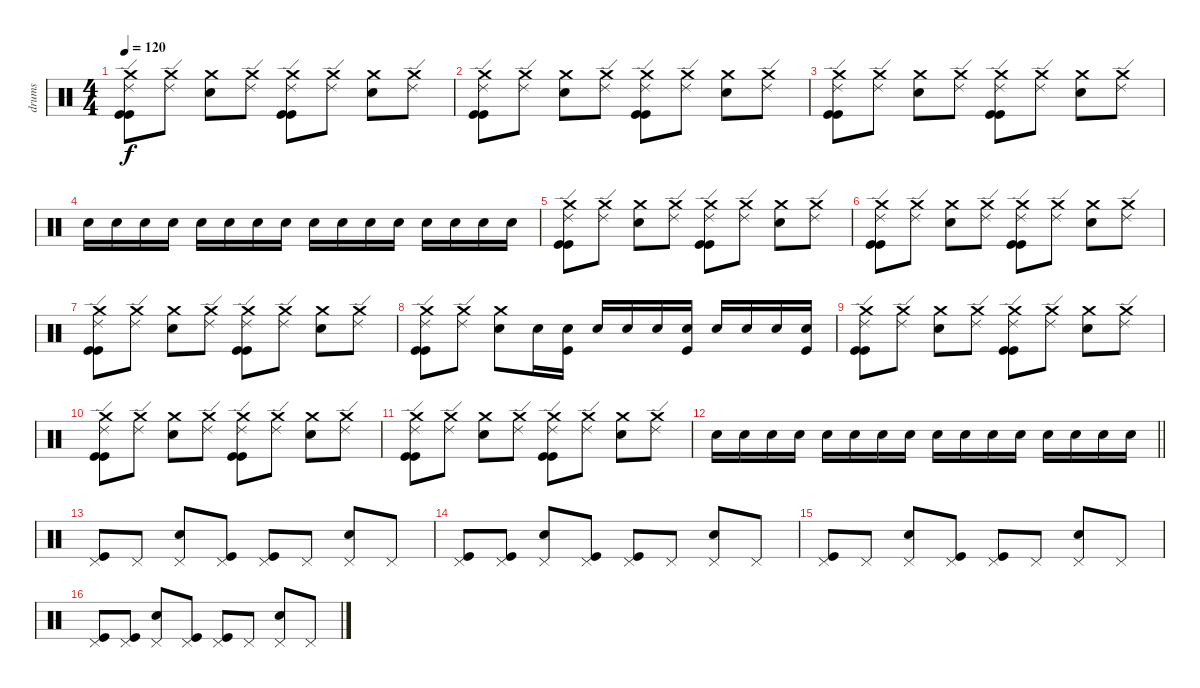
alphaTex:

\track ("drums" "drums") {instrument percussion}
\staff {score}
\articulation defaults
\ts (4 4)
\tempo 120
\clef neutral
\ks c
("Crash medium (hit)" "Ride (edge) 2" "Kick (hit)" "Kick (hit)").8{dy f} ("Crash medium (hit)" "Ride (edge) 2").8 ("Crash medium (hit)" "Electric Snare (hit)").8 ("Crash medium (hit)" "Ride (edge) 2").8 ("Crash medium (hit)" "Ride (edge) 2" "Kick (hit)" "Kick (hit)").8 ("Crash medium (hit)" "Ride (edge) 2").8 ("Crash medium (hit)" "Electric Snare (hit)").8 ("Crash medium (hit)" "Ride (edge) 2").8 |
("Crash medium (hit)" "Ride (edge) 2" "Kick (hit)" "Kick (hit)").8 ("Crash medium (hit)" "Ride (edge) 2").8 ("Crash medium (hit)" "Electric Snare (hit)").8 ("Crash medium (hit)" "Ride (edge) 2").8 ("Crash medium (hit)" "Ride (edge) 2" "Kick (hit)" "Kick (hit)").8 ("Crash medium (hit)" "Ride (edge) 2").8 ("Crash medium (hit)" "Electric Snare (hit)").8 ("Crash medium (hit)" "Ride (edge) 2").8 |
("Crash medium (hit)" "Ride (edge) 2" "Kick (hit)" "Kick (hit)").8 ("Crash medium (hit)" "Ride (edge) 2").8 ("Crash medium (hit)" "Electric Snare (hit)").8 ("Crash medium (hit)" "Ride (edge) 2").8 ("Crash medium (hit)" "Ride (edge) 2" "Kick (hit)" "Kick (hit)").8 ("Crash medium (hit)" "Ride (edge) 2").8 ("Crash medium (hit)" "Electric Snare (hit)").8 ("Crash medium (hit)" "Ride (edge) 2").8 |
"Electric Snare (hit)".16 "Electric Snare (hit)".16 "Electric Snare (hit)".16 "Electric Snare (hit)".16 "Electric Snare (hit)".16 "Electric Snare (hit)".16 "Electric Snare (hit)".16 "Electric Snare (hit)".16 "Electric Snare (hit)".16 "Electric Snare (hit)".16 "Electric Snare (hit)".16 "Electric Snare (hit)".16 "Electric Snare (hit)".16 "Electric Snare (hit)".16 "Electric Snare (hit)".16 "Electric Snare (hit)".16 |
("Crash medium (hit)" "Ride (edge) 2" "Kick (hit)" "Kick (hit)").8 ("Crash medium (hit)" "Ride (edge) 2").8 ("Crash medium (hit)" "Electric Snare (hit)").8 ("Crash medium (hit)" "Ride (edge) 2").8 ("Crash medium (hit)" "Ride (edge) 2" "Kick (hit)" "Kick (hit)").8 ("Crash medium (hit)" "Ride (edge) 2").8 ("Crash medium (hit)" "Electric Snare (hit)").8 ("Crash medium (hit)" "Ride (edge) 2").8 |
("Crash medium (hit)" "Ride (edge) 2" "Kick (hit)" "Kick (hit)").8 ("Crash medium (hit)" "Ride (edge) 2").8 ("Crash medium (hit)" "Electric Snare (hit)").8 ("Crash medium (hit)" "Ride (edge) 2").8 ("Crash medium (hit)" "Ride (edge) 2" "Kick (hit)" "Kick (hit)").8 ("Crash medium (hit)" "Ride (edge) 2").8 ("Crash medium (hit)" "Electric Snare (hit)").8 ("Crash medium (hit)" "Ride (edge) 2").8 |
("Crash medium (hit)" "Ride (edge) 2" "Kick (hit)" "Kick (hit)").8 ("Crash medium (hit)" "Ride (edge) 2").8 ("Crash medium (hit)" "Electric Snare (hit)").8 ("Crash medium (hit)" "Ride (edge) 2").8 ("Crash medium (hit)" "Ride (edge) 2" "Kick (hit)" "Kick (hit)").8 ("Crash medium (hit)" "Ride (edge) 2").8 ("Crash medium (hit)" "Electric Snare (hit)").8 ("Crash medium (hit)" "Ride (edge) 2").8 |
("Crash medium (hit)" "Ride (edge) 2" "Kick (hit)" "Kick (hit)").8 ("Crash medium (hit)" "Ride (edge) 2").8 ("Crash medium (hit)" "Electric Snare (hit)").8 "Electric Snare (hit)".16 ("Electric Snare (hit)" "Kick (hit)").16 "Electric Snare (hit)".16 "Electric Snare (hit)".16 "Electric Snare (hit)".16 ("Electric Snare (hit)" "Kick (hit)").16 "Electric Snare (hit)".16 "Electric Snare (hit)".16 "Electric Snare (hit)".16 ("Electric Snare (hit)" "Kick (hit)").16 |
("Crash medium (hit)" "Ride (edge) 2" "Kick (hit)" "Kick (hit)").8 ("Crash medium (hit)" "Ride (edge) 2").8 ("Crash medium (hit)" "Electric Snare (hit)").8 ("Crash medium (hit)" "Ride (edge) 2").8 ("Crash medium (hit)" "Ride (edge) 2" "Kick (hit)" "Kick (hit)").8 ("Crash medium (hit)" "Ride (edge) 2").8 ("Crash medium (hit)" "Electric Snare (hit)").8 ("Crash medium (hit)" "Ride (edge) 2").8 |
("Crash medium (hit)" "Ride (edge) 2" "Kick (hit)" "Kick (hit)").8 ("Crash medium (hit)" "Ride (edge) 2").8 ("Crash medium (hit)" "Electric Snare (hit)").8 ("Crash medium (hit)" "Ride (edge) 2").8 ("Crash medium (hit)" "Ride (edge) 2" "Kick (hit)" "Kick (hit)").8 ("Crash medium (hit)" "Ride (edge) 2").8 ("Crash medium (hit)" "Electric Snare (hit)").8 ("Crash medium (hit)" "Ride (edge) 2").8 |
("Crash medium (hit)" "Ride (edge) 2" "Kick (hit)" "Kick (hit)").8 ("Crash medium (hit)" "Ride (edge) 2").8 ("Crash medium (hit)" "Electric Snare (hit)").8 ("Crash medium (hit)" "Ride (edge) 2").8 ("Crash medium (hit)" "Ride (edge) 2" "Kick (hit)" "Kick (hit)").8 ("Crash medium (hit)" "Ride (edge) 2").8 ("Crash medium (hit)" "Electric Snare (hit)").8 ("Crash medium (hit)" "Ride (edge) 2").8 |
\barLineRight lightlight "Electric Snare (hit)".16 "Electric Snare (hit)".16 "Electric Snare (hit)".16 "Electric Snare (hit)".16 "Electric Snare (hit)".16 "Electric Snare (hit)".16 "Electric Snare (hit)".16 "Electric Snare (hit)".16 "Electric Snare (hit)".16 "Electric Snare (hit)".16 "Electric Snare (hit)".16 "Electric Snare (hit)".16 "Electric Snare (hit)".16 "Electric Snare (hit)".16 "Electric Snare (hit)".16 "Electric Snare (hit)".16
|
("Pedal Hi-Hat (hit)" "Kick (hit)").8 "Pedal Hi-Hat (hit)".8 ("Pedal Hi-Hat (hit)" "Electric Snare (hit)").8 ("Pedal Hi-Hat (hit)" "Kick (hit)").8 ("Pedal Hi-Hat (hit)" "Kick (hit)").8 "Pedal Hi-Hat (hit)".8 ("Pedal Hi-Hat (hit)" "Electric Snare (hit)").8 "Pedal Hi-Hat (hit)".8 |
("Pedal Hi-Hat (hit)" "Kick (hit)").8 ("Pedal Hi-Hat (hit)" "Kick (hit)").8 ("Pedal Hi-Hat (hit)" "Electric Snare (hit)").8 ("Pedal Hi-Hat (hit)" "Kick (hit)").8 ("Pedal Hi-Hat (hit)" "Kick (hit)").8 "Pedal Hi-Hat (hit)".8 ("Pedal Hi-Hat (hit)" "Electric Snare (hit)").8 "Pedal Hi-Hat (hit)".8 |
("Pedal Hi-Hat (hit)" "Kick (hit)").8 "Pedal Hi-Hat (hit)".8 ("Pedal Hi-Hat (hit)" "Electric Snare (hit)").8 ("Pedal Hi-Hat (hit)" "Kick (hit)").8 ("Pedal Hi-Hat (hit)" "Kick (hit)").8 "Pedal Hi-Hat (hit)".8 ("Pedal Hi-Hat (hit)" "Electric Snare (hit)").8 "Pedal Hi-Hat (hit)".8 |
("Pedal Hi-Hat (hit)" "Kick (hit)").8 ("Pedal Hi-Hat (hit)" "Kick (hit)").8 ("Pedal Hi-Hat (hit)" "Electric Snare (hit)").8 ("Pedal Hi-Hat (hit)" "Kick (hit)").8 ("Pedal Hi-Hat (hit)" "Kick (hit)").8 "Pedal Hi-Hat (hit)".8 ("Pedal Hi-Hat (hit)" "Electric Snare (hit)").8 "Pedal Hi-Hat (hit)".8
